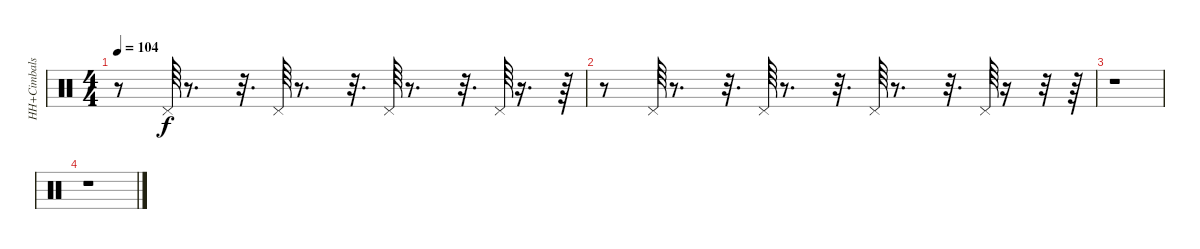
\track ("HH+Cimbals" "HH+Cimbals") {instrument percussion}
\staff {score}
\articulation defaults
\ts (4 4)
\tempo 104
\clef neutral
\ks c
r.8{dy f} "Pedal Hi-Hat (hit)".64 r.8{d} r.32{d} "Pedal Hi-Hat (hit)".64 r.8{d} r.32{d} "Pedal Hi-Hat (hit)".64 r.8{d} r.32{d} "Pedal Hi-Hat (hit)".64 r.16{d} r.64 |
r.8 "Pedal Hi-Hat (hit)".64 r.8{d} r.32{d} "Pedal Hi-Hat (hit)".64 r.8{d} r.32{d} "Pedal Hi-Hat (hit)".64 r.8{d} r.32{d} "Pedal Hi-Hat (hit)".64 r.16 r.32 r.64 |
r.1 |
r.1
